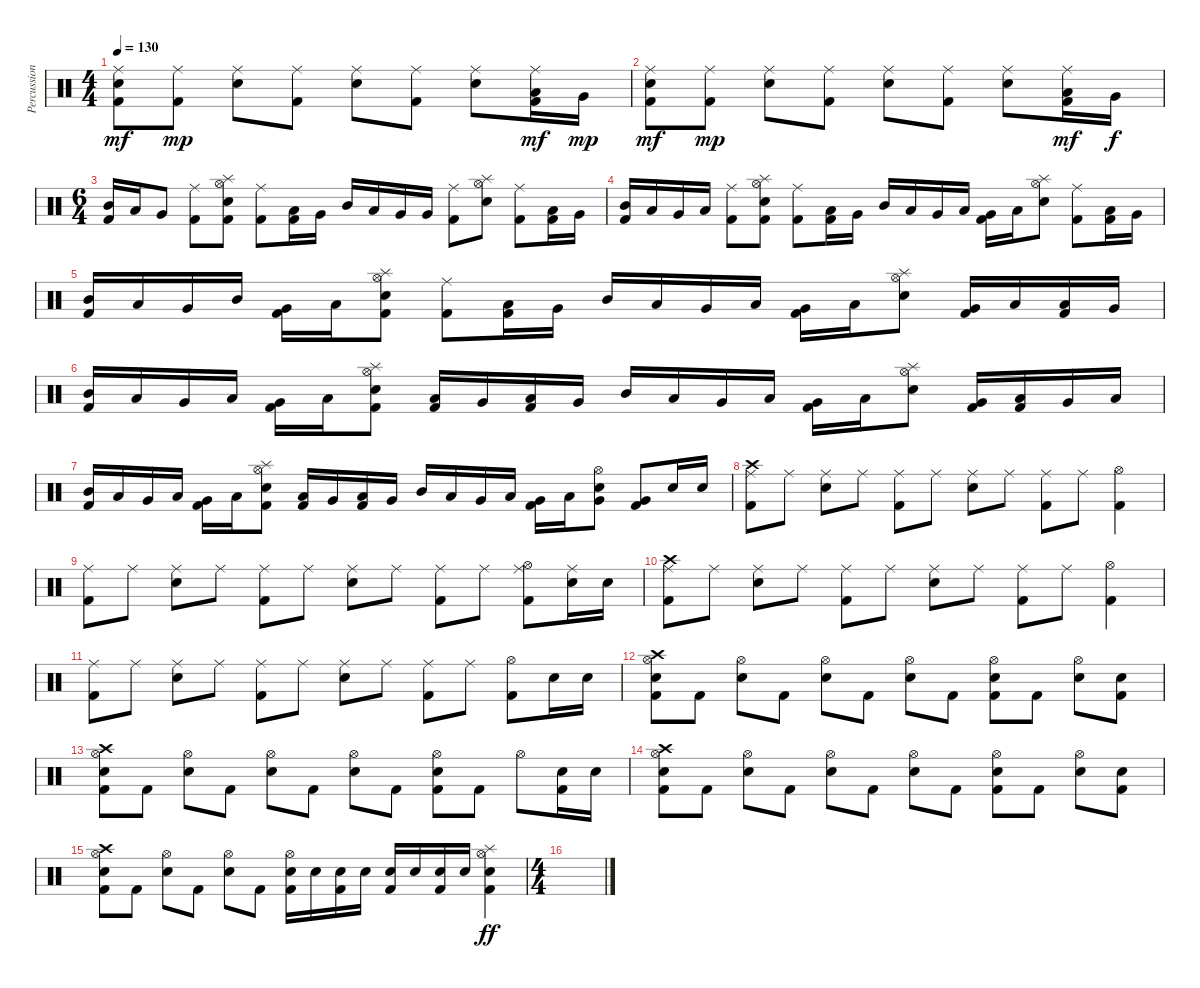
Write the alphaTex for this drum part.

\track ("Percussion" "Percussion") {instrument percussion}
\staff {score}
\articulation defaults
\ts (4 4)
\tempo 130
\clef neutral
\ks c
("Ride (middle)" "Electric Snare (hit)" "Kick (hit) 2").8{dy mf} ("Ride (middle)" "Kick (hit) 2").8{dy mp} ("Ride (middle)" "Electric Snare (hit)").8 ("Ride (middle)" "Kick (hit) 2").8 ("Ride (middle)" "Electric Snare (hit)").8 ("Ride (middle)" "Kick (hit) 2").8 ("Ride (middle)" "Electric Snare (hit)").8 ("Ride (middle)" "Low Tom (hit)" "Kick (hit) 2").16{dy mf} "Very Low Tom (hit)".16{dy mp} |
("Ride (middle)" "Electric Snare (hit)" "Kick (hit) 2").8{dy mf} ("Ride (middle)" "Kick (hit) 2").8{dy mp} ("Ride (middle)" "Electric Snare (hit)").8 ("Ride (middle)" "Kick (hit) 2").8 ("Ride (middle)" "Electric Snare (hit)").8 ("Ride (middle)" "Kick (hit) 2").8 ("Ride (middle)" "Electric Snare (hit)").8 ("Ride (middle)" "Low Tom (hit)" "Kick (hit) 2").16{dy mf} "Very Low Tom (hit)".16{dy f} |
\ts (6 4)
("Mid Tom (hit)" "Kick (hit) 2").16 "Low Tom (hit)".16 "Very Low Tom (hit)".8 ("Ride (middle)" "Kick (hit) 2").8 ("Splash (hit)" "Hi-Hat (open)" "Electric Snare (hit)" "Kick (hit) 2").8 ("Ride (middle)" "Kick (hit) 2").8 ("Low Tom (hit)" "Kick (hit) 2").16 "Very Low Tom (hit)".16 "Mid Tom (hit)".16 "Low Tom (hit)".16 "Very Low Tom (hit)".16 "Very Low Tom (hit)".16 ("Ride (middle)" "Kick (hit) 2").8 ("Splash (hit)" "Hi-Hat (open)" "Electric Snare (hit)").8 ("Ride (middle)" "Kick (hit) 2").8 ("Low Tom (hit)" "Kick (hit) 2").16 "Very Low Tom (hit)".16 |
("Mid Tom (hit)" "Kick (hit) 2").16 "Low Tom (hit)".16 "Very Low Tom (hit)".16 "Low Floor Tom (hit)".16 ("Ride (middle)" "Kick (hit) 2").8 ("Splash (hit)" "Hi-Hat (open)" "Electric Snare (hit)" "Kick (hit) 2").8 ("Ride (middle)" "Kick (hit) 2").8 ("Low Tom (hit)" "Kick (hit) 2").16 "Very Low Tom (hit)".16 "Mid Tom (hit)".16 "Low Tom (hit)".16 "Very Low Tom (hit)".16 "Low Floor Tom (hit)".16 ("Very Low Tom (hit)" "Kick (hit) 2").16 "Low Tom (hit)".16 ("Splash (hit)" "Hi-Hat (open)" "Electric Snare (hit)").8 ("Ride (middle)" "Kick (hit) 2").8 ("Low Tom (hit)" "Kick (hit) 2").16 "Very Low Tom (hit)".16 |
("Mid Tom (hit)" "Kick (hit) 2").16 "Low Tom (hit)".16 "Very Low Tom (hit)".16 "Mid Tom (hit)".16 ("Very Low Tom (hit)" "Kick (hit) 2").16 "Low Tom (hit)".16 ("Splash (hit)" "Hi-Hat (open)" "Electric Snare (hit)" "Kick (hit) 2").8 ("Ride (middle)" "Kick (hit) 2").8 ("Low Tom (hit)" "Kick (hit) 2").16 "Very Low Tom (hit)".16 "Mid Tom (hit)".16 "Low Tom (hit)".16 "Very Low Tom (hit)".16 "Low Floor Tom (hit)".16 ("Very Low Tom (hit)" "Kick (hit) 2").16 "Low Tom (hit)".16 ("Splash (hit)" "Hi-Hat (open)" "Electric Snare (hit)").8 ("Very Low Tom (hit)" "Kick (hit) 2").16 "Low Floor Tom (hit)".16 ("Low Tom (hit)" "Kick (hit) 2").16 "Very Low Tom (hit)".16 |
("Mid Tom (hit)" "Kick (hit) 2").16 "Low Tom (hit)".16 "Very Low Tom (hit)".16 "Low Floor Tom (hit)".16 ("Very Low Tom (hit)" "Kick (hit) 2").16 "Low Tom (hit)".16 ("Splash (hit)" "Hi-Hat (open)" "Electric Snare (hit)" "Kick (hit) 2").8 ("Low Tom (hit)" "Kick (hit) 2").16 "Very Low Tom (hit)".16 ("Low Tom (hit)" "Kick (hit) 2").16 "Very Low Tom (hit)".16 "Mid Tom (hit)".16 "Low Tom (hit)".16 "Very Low Tom (hit)".16 "Low Floor Tom (hit)".16 ("Very Low Tom (hit)" "Kick (hit) 2").16 "Low Tom (hit)".16 ("Splash (hit)" "Hi-Hat (open)" "Electric Snare (hit)").8 ("Very Low Tom (hit)" "Kick (hit) 2").16 ("Low Tom (hit)" "Kick (hit) 2").16 "Very Low Tom (hit)".16 "Low Tom (hit)".16 |
("Mid Tom (hit)" "Kick (hit) 2").16 "Low Tom (hit)".16 "Very Low Tom (hit)".16 "Low Floor Tom (hit)".16 ("Very Low Tom (hit)" "Kick (hit) 2").16 "Low Tom (hit)".16 ("Splash (hit)" "Hi-Hat (open)" "Electric Snare (hit)" "Kick (hit) 2").8 ("Low Tom (hit)" "Kick (hit) 2").16 "Very Low Tom (hit)".16 ("Low Tom (hit)" "Kick (hit) 2").16 "Very Low Tom (hit)".16 "Mid Tom (hit)".16 "Low Tom (hit)".16 "Very Low Tom (hit)".16 "Low Floor Tom (hit)".16 ("Very Low Tom (hit)" "Kick (hit) 2").16 "Low Tom (hit)".16 ("Hi-Hat (open)" "Electric Snare (hit)" "Very Low Tom (hit)").8 ("Very Low Tom (hit)" "Kick (hit) 2").8 "Electric Snare (hit)".16 "Electric Snare (hit)".16 |
("Crash high (hit)" "Ride (middle)" "Kick (hit) 2").8 "Ride (middle)".8 ("Ride (middle)" "Electric Snare (hit)").8 "Ride (middle)".8 ("Ride (middle)" "Kick (hit) 2").8 "Ride (middle)".8 ("Ride (middle)" "Electric Snare (hit)").8 "Ride (middle)".8 ("Ride (middle)" "Kick (hit) 2").8 "Ride (middle)".8 ("Hi-Hat (open)" "Kick (hit) 2").4 |
("Ride (middle)" "Kick (hit) 2").8 "Ride (middle)".8 ("Ride (middle)" "Electric Snare (hit)").8 "Ride (middle)".8 ("Ride (middle)" "Kick (hit) 2").8 "Ride (middle)".8 ("Ride (middle)" "Electric Snare (hit)").8 "Ride (middle)".8 ("Ride (middle)" "Kick (hit) 2").8 "Ride (middle)".8 ("Ride (middle)" "Hi-Hat (open)" "Kick (hit) 2").8 ("Ride (middle)" "Electric Snare (hit)").16 "Electric Snare (hit)".16 |
("Crash high (hit)" "Ride (middle)" "Kick (hit) 2").8 "Ride (middle)".8 ("Ride (middle)" "Electric Snare (hit)").8 "Ride (middle)".8 ("Ride (middle)" "Kick (hit) 2").8 "Ride (middle)".8 ("Ride (middle)" "Electric Snare (hit)").8 "Ride (middle)".8 ("Ride (middle)" "Kick (hit) 2").8 "Ride (middle)".8 ("Hi-Hat (open)" "Kick (hit) 2").4 |
("Ride (middle)" "Kick (hit) 2").8 "Ride (middle)".8 ("Ride (middle)" "Electric Snare (hit)").8 "Ride (middle)".8 ("Ride (middle)" "Kick (hit) 2").8 "Ride (middle)".8 ("Ride (middle)" "Electric Snare (hit)").8 "Ride (middle)".8 ("Ride (middle)" "Kick (hit) 2").8 "Ride (middle)".8 ("Hi-Hat (open)" "Kick (hit) 2").8 "Electric Snare (hit)".16 "Electric Snare (hit)".16 |
("Crash high (hit)" "Hi-Hat (open)" "Electric Snare (hit)" "Kick (hit) 2").8 "Kick (hit) 2".8 ("Hi-Hat (open)" "Electric Snare (hit)").8 "Kick (hit) 2".8 ("Hi-Hat (open)" "Electric Snare (hit)").8 "Kick (hit) 2".8 ("Hi-Hat (open)" "Electric Snare (hit)").8 "Kick (hit) 2".8 ("Hi-Hat (open)" "Electric Snare (hit)" "Kick (hit) 2").8 "Kick (hit) 2".8 ("Hi-Hat (open)" "Electric Snare (hit)").8 ("Electric Snare (hit)" "Kick (hit) 2").8 |
("Crash high (hit)" "Hi-Hat (open)" "Electric Snare (hit)" "Kick (hit) 2").8 "Kick (hit) 2".8 ("Hi-Hat (open)" "Electric Snare (hit)").8 "Kick (hit) 2".8 ("Hi-Hat (open)" "Electric Snare (hit)").8 "Kick (hit) 2".8 ("Hi-Hat (open)" "Electric Snare (hit)").8 "Kick (hit) 2".8 ("Hi-Hat (open)" "Electric Snare (hit)" "Kick (hit) 2").8 "Kick (hit) 2".8 "Hi-Hat (open)".8 ("Electric Snare (hit)" "Kick (hit) 2").16 "Electric Snare (hit)".16 |
("Crash high (hit)" "Hi-Hat (open)" "Electric Snare (hit)" "Kick (hit) 2").8 "Kick (hit) 2".8 ("Hi-Hat (open)" "Electric Snare (hit)").8 "Kick (hit) 2".8 ("Hi-Hat (open)" "Electric Snare (hit)").8 "Kick (hit) 2".8 ("Hi-Hat (open)" "Electric Snare (hit)").8 "Kick (hit) 2".8 ("Hi-Hat (open)" "Electric Snare (hit)" "Kick (hit) 2").8 "Kick (hit) 2".8 ("Hi-Hat (open)" "Electric Snare (hit)").8 ("Electric Snare (hit)" "Kick (hit) 2").8 |
("Crash high (hit)" "Hi-Hat (open)" "Electric Snare (hit)" "Kick (hit) 2").8 "Kick (hit) 2".8 ("Hi-Hat (open)" "Electric Snare (hit)").8 "Kick (hit) 2".8 ("Hi-Hat (open)" "Electric Snare (hit)").8 "Kick (hit) 2".8 ("Hi-Hat (open)" "Electric Snare (hit)" "Kick (hit) 2").16 "Electric Snare (hit)".16 ("Electric Snare (hit)" "Kick (hit) 2").16 "Electric Snare (hit)".16 ("Electric Snare (hit)" "Kick (hit) 2").16 "Electric Snare (hit)".16 ("Electric Snare (hit)" "Kick (hit) 2").16 "Electric Snare (hit)".16 ("Splash (hit)" "Hi-Hat (open)" "Electric Snare (hit)" "Kick (hit) 2").4{dy ff} |
\ts (4 4)
